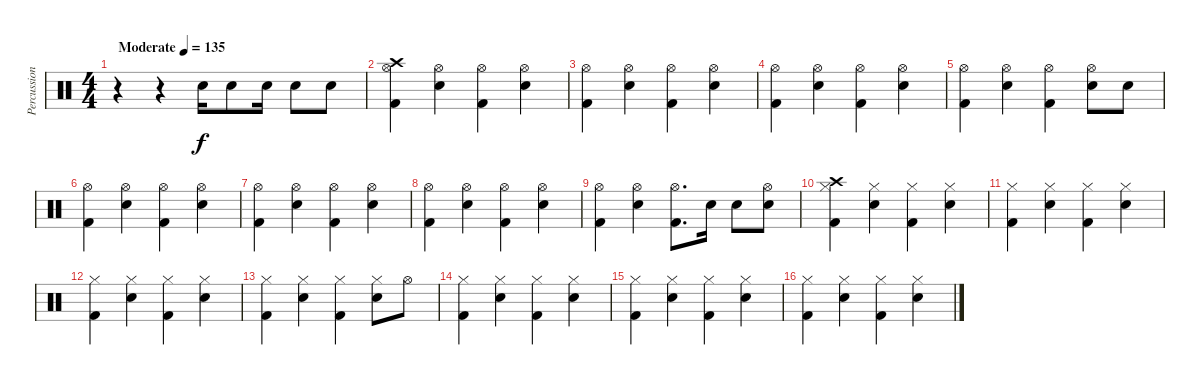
\track ("Percussions" "Percussion") {instrument percussion}
\staff {score}
\articulation defaults
\ts (4 4)
\tempo (135 "Moderate")
\clef neutral
\ks c
r.4{dy f} r.4 "Snare (hit) 2".16 "Snare (hit) 2".8 "Snare (hit) 2".16 "Snare (hit) 2".8 "Snare (hit) 2".8 |
("Crash high (hit)" "Hi-Hat (open)" "Kick (hit) 2").4 ("Hi-Hat (open)" "Snare (hit) 2").4 ("Hi-Hat (open)" "Kick (hit) 2").4 ("Hi-Hat (open)" "Snare (hit) 2").4 |
("Hi-Hat (open)" "Kick (hit) 2").4 ("Hi-Hat (open)" "Snare (hit) 2").4 ("Hi-Hat (open)" "Kick (hit) 2").4 ("Hi-Hat (open)" "Snare (hit) 2").4 |
("Hi-Hat (open)" "Kick (hit) 2").4 ("Hi-Hat (open)" "Snare (hit) 2").4 ("Hi-Hat (open)" "Kick (hit) 2").4 ("Hi-Hat (open)" "Snare (hit) 2").4 |
("Hi-Hat (open)" "Kick (hit) 2").4 ("Hi-Hat (open)" "Snare (hit) 2").4 ("Hi-Hat (open)" "Kick (hit) 2").4 ("Hi-Hat (open)" "Snare (hit) 2").8 "Snare (hit) 2".8 |
("Hi-Hat (open)" "Kick (hit) 2").4 ("Hi-Hat (open)" "Snare (hit) 2").4 ("Hi-Hat (open)" "Kick (hit) 2").4 ("Hi-Hat (open)" "Snare (hit) 2").4 |
("Hi-Hat (open)" "Kick (hit) 2").4 ("Hi-Hat (open)" "Snare (hit) 2").4 ("Hi-Hat (open)" "Kick (hit) 2").4 ("Hi-Hat (open)" "Snare (hit) 2").4 |
("Hi-Hat (open)" "Kick (hit) 2").4 ("Hi-Hat (open)" "Snare (hit) 2").4 ("Hi-Hat (open)" "Kick (hit) 2").4 ("Hi-Hat (open)" "Snare (hit) 2").4 |
("Hi-Hat (open)" "Kick (hit) 2").4 ("Hi-Hat (open)" "Snare (hit) 2").4 ("Hi-Hat (open)" "Kick (hit) 2").8{d} "Snare (hit) 2".16 "Snare (hit) 2".8 ("Hi-Hat (open)" "Snare (hit) 2").8 |
("Crash high (hit)" "Hi-Hat (closed)" "Kick (hit) 2").4 ("Hi-Hat (closed)" "Snare (hit) 2").4 ("Hi-Hat (closed)" "Kick (hit) 2").4 ("Hi-Hat (closed)" "Snare (hit) 2").4 |
("Hi-Hat (closed)" "Kick (hit) 2").4 ("Hi-Hat (closed)" "Snare (hit) 2").4 ("Hi-Hat (closed)" "Kick (hit) 2").4 ("Hi-Hat (closed)" "Snare (hit) 2").4 |
("Hi-Hat (closed)" "Kick (hit) 2").4 ("Hi-Hat (closed)" "Snare (hit) 2").4 ("Hi-Hat (closed)" "Kick (hit) 2").4 ("Hi-Hat (closed)" "Snare (hit) 2").4 |
("Hi-Hat (closed)" "Kick (hit) 2").4 ("Hi-Hat (closed)" "Snare (hit) 2").4 ("Hi-Hat (closed)" "Kick (hit) 2").4 ("Hi-Hat (closed)" "Snare (hit) 2").8 "Hi-Hat (open)".8 |
("Hi-Hat (closed)" "Kick (hit) 2").4 ("Hi-Hat (closed)" "Snare (hit) 2").4 ("Hi-Hat (closed)" "Kick (hit) 2").4 ("Hi-Hat (closed)" "Snare (hit) 2").4 |
("Hi-Hat (closed)" "Kick (hit) 2").4 ("Hi-Hat (closed)" "Snare (hit) 2").4 ("Hi-Hat (closed)" "Kick (hit) 2").4 ("Hi-Hat (closed)" "Snare (hit) 2").4 |
("Hi-Hat (closed)" "Kick (hit) 2").4 ("Hi-Hat (closed)" "Snare (hit) 2").4 ("Hi-Hat (closed)" "Kick (hit) 2").4 ("Hi-Hat (closed)" "Snare (hit) 2").4
